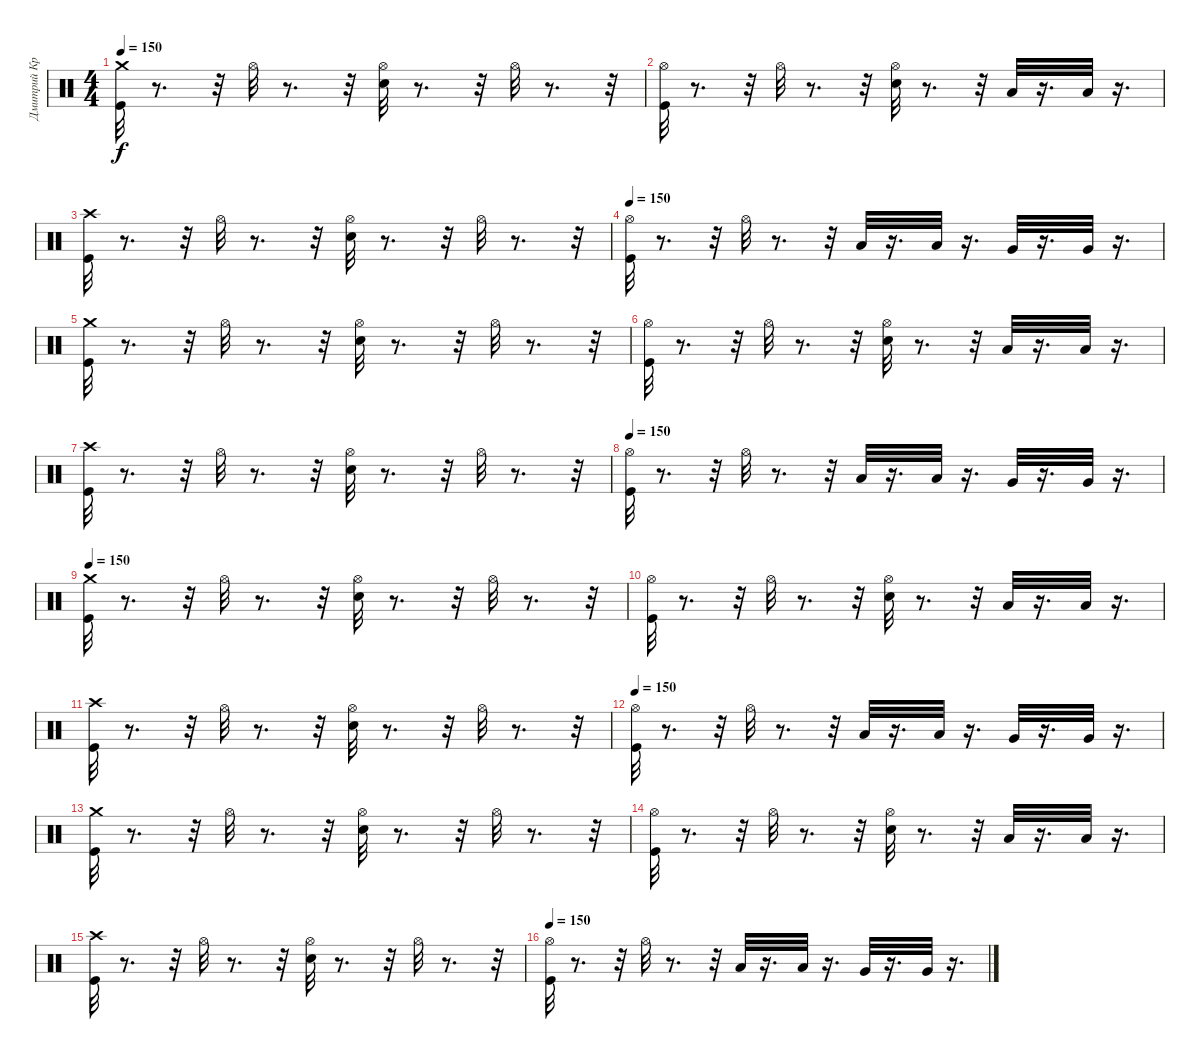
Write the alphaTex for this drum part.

\track ("Дмитрий Кривенков" "Дмитрий Кр") {instrument percussion}
\staff {score}
\articulation defaults
\ts (4 4)
\tempo 150
\clef neutral
\ks c
("Crash medium (hit)" "Kick (hit)").32{dy f} r.8{d} r.32 "Hi-Hat (open)".32 r.8{d} r.32 ("Hi-Hat (open)" "Electric Snare (hit)").32 r.8{d} r.32 "Hi-Hat (open)".32 r.8{d} r.32 |
("Hi-Hat (open)" "Kick (hit)").32 r.8{d} r.32 "Hi-Hat (open)".32 r.8{d} r.32 ("Hi-Hat (open)" "Electric Snare (hit)").32 r.8{d} r.32 "Low Tom (hit)".32 r.16{d} "Low Tom (hit)".32 r.16{d} |
("Kick (hit)" "Crash high (hit)").32 r.8{d} r.32 "Hi-Hat (open)".32 r.8{d} r.32 ("Hi-Hat (open)" "Electric Snare (hit)").32 r.8{d} r.32 "Hi-Hat (open)".32 r.8{d} r.32 |
\tempo 150
("Hi-Hat (open)" "Kick (hit)").32 r.8{d} r.32 "Hi-Hat (open)".32 r.8{d} r.32 "Low Tom (hit)".32 r.16{d} "Low Tom (hit)".32 r.16{d} "Very Low Tom (hit)".32 r.16{d} "Very Low Tom (hit)".32 r.16{d} |
("Crash medium (hit)" "Kick (hit)").32 r.8{d} r.32 "Hi-Hat (open)".32 r.8{d} r.32 ("Hi-Hat (open)" "Electric Snare (hit)").32 r.8{d} r.32 "Hi-Hat (open)".32 r.8{d} r.32 |
("Hi-Hat (open)" "Kick (hit)").32 r.8{d} r.32 "Hi-Hat (open)".32 r.8{d} r.32 ("Hi-Hat (open)" "Electric Snare (hit)").32 r.8{d} r.32 "Low Tom (hit)".32 r.16{d} "Low Tom (hit)".32 r.16{d} |
("Kick (hit)" "Crash high (hit)").32 r.8{d} r.32 "Hi-Hat (open)".32 r.8{d} r.32 ("Hi-Hat (open)" "Electric Snare (hit)").32 r.8{d} r.32 "Hi-Hat (open)".32 r.8{d} r.32 |
\tempo 150
("Hi-Hat (open)" "Kick (hit)").32 r.8{d} r.32 "Hi-Hat (open)".32 r.8{d} r.32 "Low Tom (hit)".32 r.16{d} "Low Tom (hit)".32 r.16{d} "Very Low Tom (hit)".32 r.16{d} "Very Low Tom (hit)".32 r.16{d} |
\tempo 150
("Crash medium (hit)" "Kick (hit)").32 r.8{d} r.32 "Hi-Hat (open)".32 r.8{d} r.32 ("Hi-Hat (open)" "Electric Snare (hit)").32 r.8{d} r.32 "Hi-Hat (open)".32 r.8{d} r.32 |
("Hi-Hat (open)" "Kick (hit)").32 r.8{d} r.32 "Hi-Hat (open)".32 r.8{d} r.32 ("Hi-Hat (open)" "Electric Snare (hit)").32 r.8{d} r.32 "Low Tom (hit)".32 r.16{d} "Low Tom (hit)".32 r.16{d} |
("Kick (hit)" "Crash high (hit)").32 r.8{d} r.32 "Hi-Hat (open)".32 r.8{d} r.32 ("Hi-Hat (open)" "Electric Snare (hit)").32 r.8{d} r.32 "Hi-Hat (open)".32 r.8{d} r.32 |
\tempo 150
("Hi-Hat (open)" "Kick (hit)").32 r.8{d} r.32 "Hi-Hat (open)".32 r.8{d} r.32 "Low Tom (hit)".32 r.16{d} "Low Tom (hit)".32 r.16{d} "Very Low Tom (hit)".32 r.16{d} "Very Low Tom (hit)".32 r.16{d} |
("Crash medium (hit)" "Kick (hit)").32 r.8{d} r.32 "Hi-Hat (open)".32 r.8{d} r.32 ("Hi-Hat (open)" "Electric Snare (hit)").32 r.8{d} r.32 "Hi-Hat (open)".32 r.8{d} r.32 |
("Hi-Hat (open)" "Kick (hit)").32 r.8{d} r.32 "Hi-Hat (open)".32 r.8{d} r.32 ("Hi-Hat (open)" "Electric Snare (hit)").32 r.8{d} r.32 "Low Tom (hit)".32 r.16{d} "Low Tom (hit)".32 r.16{d} |
("Kick (hit)" "Crash high (hit)").32 r.8{d} r.32 "Hi-Hat (open)".32 r.8{d} r.32 ("Hi-Hat (open)" "Electric Snare (hit)").32 r.8{d} r.32 "Hi-Hat (open)".32 r.8{d} r.32 |
\tempo 150
("Hi-Hat (open)" "Kick (hit)").32 r.8{d} r.32 "Hi-Hat (open)".32 r.8{d} r.32 "Low Tom (hit)".32 r.16{d} "Low Tom (hit)".32 r.16{d} "Very Low Tom (hit)".32 r.16{d} "Very Low Tom (hit)".32 r.16{d}
